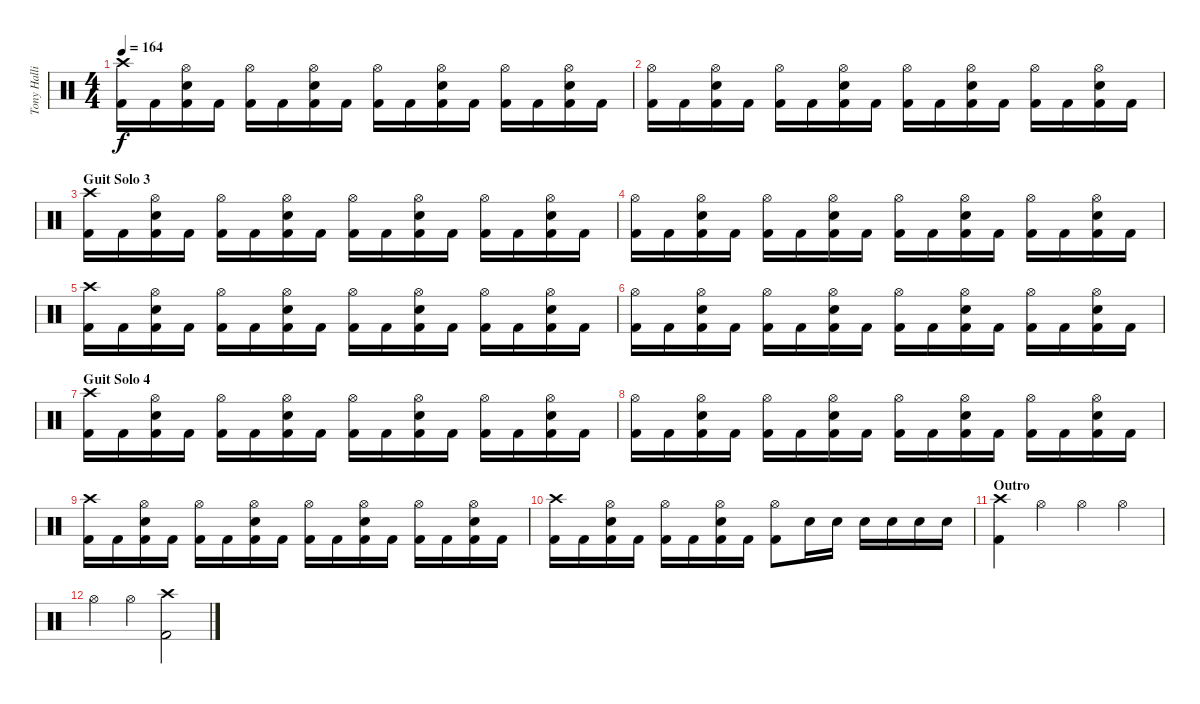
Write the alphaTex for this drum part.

\track ("Tony Hallio - Drums" "Tony Halli") {instrument percussion}
\staff {score}
\articulation defaults
\ts (4 4)
\tempo 164
\clef neutral
\ks c
("Crash high (hit)" "Kick (hit) 2").16{dy f} "Kick (hit) 2".16 ("Hi-Hat (open)" "Electric Snare (hit)" "Kick (hit) 2").16 "Kick (hit) 2".16 ("Hi-Hat (open)" "Kick (hit) 2").16 "Kick (hit) 2".16 ("Hi-Hat (open)" "Electric Snare (hit)" "Kick (hit) 2").16 "Kick (hit) 2".16 ("Hi-Hat (open)" "Kick (hit) 2").16 "Kick (hit) 2".16 ("Hi-Hat (open)" "Electric Snare (hit)" "Kick (hit) 2").16 "Kick (hit) 2".16 ("Hi-Hat (open)" "Kick (hit) 2").16 "Kick (hit) 2".16 ("Hi-Hat (open)" "Electric Snare (hit)" "Kick (hit) 2").16 "Kick (hit) 2".16 |
("Hi-Hat (open)" "Kick (hit) 2").16 "Kick (hit) 2".16 ("Hi-Hat (open)" "Electric Snare (hit)" "Kick (hit) 2").16 "Kick (hit) 2".16 ("Hi-Hat (open)" "Kick (hit) 2").16 "Kick (hit) 2".16 ("Hi-Hat (open)" "Electric Snare (hit)" "Kick (hit) 2").16 "Kick (hit) 2".16 ("Hi-Hat (open)" "Kick (hit) 2").16 "Kick (hit) 2".16 ("Hi-Hat (open)" "Electric Snare (hit)" "Kick (hit) 2").16 "Kick (hit) 2".16 ("Hi-Hat (open)" "Kick (hit) 2").16 "Kick (hit) 2".16 ("Hi-Hat (open)" "Electric Snare (hit)" "Kick (hit) 2").16 "Kick (hit) 2".16 |
\section ("" "Guit Solo 3")
("Crash high (hit)" "Kick (hit) 2").16 "Kick (hit) 2".16 ("Hi-Hat (open)" "Electric Snare (hit)" "Kick (hit) 2").16 "Kick (hit) 2".16 ("Hi-Hat (open)" "Kick (hit) 2").16 "Kick (hit) 2".16 ("Hi-Hat (open)" "Electric Snare (hit)" "Kick (hit) 2").16 "Kick (hit) 2".16 ("Hi-Hat (open)" "Kick (hit) 2").16 "Kick (hit) 2".16 ("Hi-Hat (open)" "Electric Snare (hit)" "Kick (hit) 2").16 "Kick (hit) 2".16 ("Hi-Hat (open)" "Kick (hit) 2").16 "Kick (hit) 2".16 ("Hi-Hat (open)" "Electric Snare (hit)" "Kick (hit) 2").16 "Kick (hit) 2".16 |
("Hi-Hat (open)" "Kick (hit) 2").16 "Kick (hit) 2".16 ("Hi-Hat (open)" "Electric Snare (hit)" "Kick (hit) 2").16 "Kick (hit) 2".16 ("Hi-Hat (open)" "Kick (hit) 2").16 "Kick (hit) 2".16 ("Hi-Hat (open)" "Electric Snare (hit)" "Kick (hit) 2").16 "Kick (hit) 2".16 ("Hi-Hat (open)" "Kick (hit) 2").16 "Kick (hit) 2".16 ("Hi-Hat (open)" "Electric Snare (hit)" "Kick (hit) 2").16 "Kick (hit) 2".16 ("Hi-Hat (open)" "Kick (hit) 2").16 "Kick (hit) 2".16 ("Hi-Hat (open)" "Electric Snare (hit)" "Kick (hit) 2").16 "Kick (hit) 2".16 |
("Crash high (hit)" "Kick (hit) 2").16 "Kick (hit) 2".16 ("Hi-Hat (open)" "Electric Snare (hit)" "Kick (hit) 2").16 "Kick (hit) 2".16 ("Hi-Hat (open)" "Kick (hit) 2").16 "Kick (hit) 2".16 ("Hi-Hat (open)" "Electric Snare (hit)" "Kick (hit) 2").16 "Kick (hit) 2".16 ("Hi-Hat (open)" "Kick (hit) 2").16 "Kick (hit) 2".16 ("Hi-Hat (open)" "Electric Snare (hit)" "Kick (hit) 2").16 "Kick (hit) 2".16 ("Hi-Hat (open)" "Kick (hit) 2").16 "Kick (hit) 2".16 ("Hi-Hat (open)" "Electric Snare (hit)" "Kick (hit) 2").16 "Kick (hit) 2".16 |
("Hi-Hat (open)" "Kick (hit) 2").16 "Kick (hit) 2".16 ("Hi-Hat (open)" "Electric Snare (hit)" "Kick (hit) 2").16 "Kick (hit) 2".16 ("Hi-Hat (open)" "Kick (hit) 2").16 "Kick (hit) 2".16 ("Hi-Hat (open)" "Electric Snare (hit)" "Kick (hit) 2").16 "Kick (hit) 2".16 ("Hi-Hat (open)" "Kick (hit) 2").16 "Kick (hit) 2".16 ("Hi-Hat (open)" "Electric Snare (hit)" "Kick (hit) 2").16 "Kick (hit) 2".16 ("Hi-Hat (open)" "Kick (hit) 2").16 "Kick (hit) 2".16 ("Hi-Hat (open)" "Electric Snare (hit)" "Kick (hit) 2").16 "Kick (hit) 2".16 |
\section ("" "Guit Solo 4")
("Crash high (hit)" "Kick (hit) 2").16 "Kick (hit) 2".16 ("Hi-Hat (open)" "Electric Snare (hit)" "Kick (hit) 2").16 "Kick (hit) 2".16 ("Hi-Hat (open)" "Kick (hit) 2").16 "Kick (hit) 2".16 ("Hi-Hat (open)" "Electric Snare (hit)" "Kick (hit) 2").16 "Kick (hit) 2".16 ("Hi-Hat (open)" "Kick (hit) 2").16 "Kick (hit) 2".16 ("Hi-Hat (open)" "Electric Snare (hit)" "Kick (hit) 2").16 "Kick (hit) 2".16 ("Hi-Hat (open)" "Kick (hit) 2").16 "Kick (hit) 2".16 ("Hi-Hat (open)" "Electric Snare (hit)" "Kick (hit) 2").16 "Kick (hit) 2".16 |
("Hi-Hat (open)" "Kick (hit) 2").16 "Kick (hit) 2".16 ("Hi-Hat (open)" "Electric Snare (hit)" "Kick (hit) 2").16 "Kick (hit) 2".16 ("Hi-Hat (open)" "Kick (hit) 2").16 "Kick (hit) 2".16 ("Hi-Hat (open)" "Electric Snare (hit)" "Kick (hit) 2").16 "Kick (hit) 2".16 ("Hi-Hat (open)" "Kick (hit) 2").16 "Kick (hit) 2".16 ("Hi-Hat (open)" "Electric Snare (hit)" "Kick (hit) 2").16 "Kick (hit) 2".16 ("Hi-Hat (open)" "Kick (hit) 2").16 "Kick (hit) 2".16 ("Hi-Hat (open)" "Electric Snare (hit)" "Kick (hit) 2").16 "Kick (hit) 2".16 |
("Crash high (hit)" "Kick (hit) 2").16 "Kick (hit) 2".16 ("Hi-Hat (open)" "Electric Snare (hit)" "Kick (hit) 2").16 "Kick (hit) 2".16 ("Hi-Hat (open)" "Kick (hit) 2").16 "Kick (hit) 2".16 ("Hi-Hat (open)" "Electric Snare (hit)" "Kick (hit) 2").16 "Kick (hit) 2".16 ("Hi-Hat (open)" "Kick (hit) 2").16 "Kick (hit) 2".16 ("Hi-Hat (open)" "Electric Snare (hit)" "Kick (hit) 2").16 "Kick (hit) 2".16 ("Hi-Hat (open)" "Kick (hit) 2").16 "Kick (hit) 2".16 ("Hi-Hat (open)" "Electric Snare (hit)" "Kick (hit) 2").16 "Kick (hit) 2".16 |
("Crash high (hit)" "Kick (hit) 2").16 "Kick (hit) 2".16 ("Hi-Hat (open)" "Electric Snare (hit)" "Kick (hit) 2").16 "Kick (hit) 2".16 ("Hi-Hat (open)" "Kick (hit) 2").16 "Kick (hit) 2".16 ("Hi-Hat (open)" "Electric Snare (hit)" "Kick (hit) 2").16 "Kick (hit) 2".16 ("Hi-Hat (open)" "Kick (hit) 2").8 "Electric Snare (hit)".16 "Electric Snare (hit)".16 "Electric Snare (hit)".16 "Electric Snare (hit)".16 "Electric Snare (hit)".16 "Electric Snare (hit)".16 |
\section ("" "Outro")
("Crash high (hit)" "Kick (hit) 2").4 "Hi-Hat (open)".4 "Hi-Hat (open)".4 "Hi-Hat (open)".4 |
"Hi-Hat (open)".4 "Hi-Hat (open)".4 ("Crash high (hit)" "Kick (hit) 2").2
